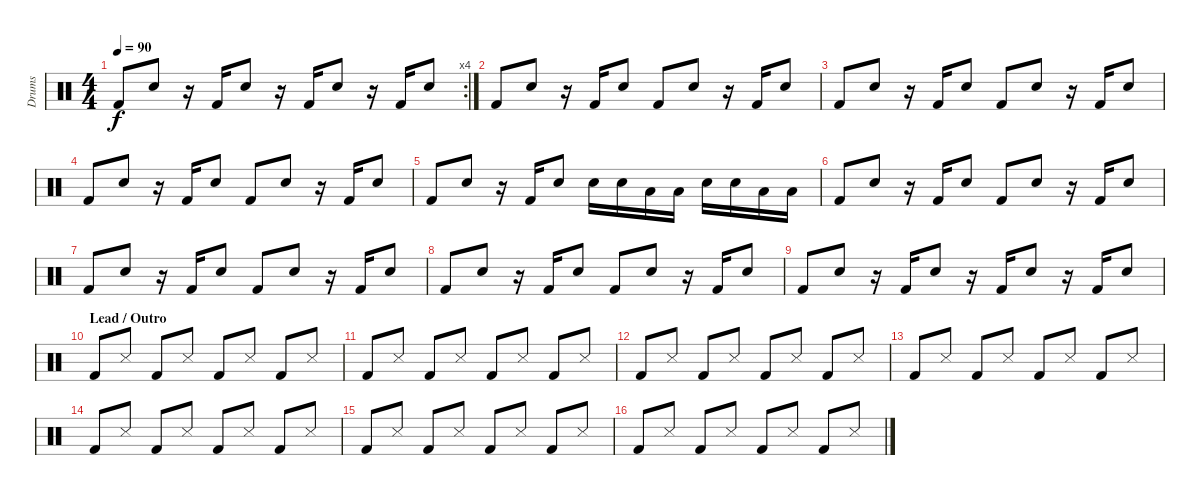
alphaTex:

\track ("Drums" "Drums") {instrument percussion}
\staff {score}
\articulation defaults
\rc 4
\ts (4 4)
\tempo 90
\clef neutral
\ks c "Kick (hit) 2".8{dy f} "Snare (hit) 2".8
r.16 "Kick (hit) 2".16 "Snare (hit) 2".8 r.16 "Kick (hit) 2".16 "Snare (hit) 2".8 r.16 "Kick (hit) 2".16 "Snare (hit) 2".8 |
"Kick (hit) 2".8 "Snare (hit) 2".8 r.16 "Kick (hit) 2".16 "Snare (hit) 2".8 "Kick (hit) 2".8 "Snare (hit) 2".8 r.16 "Kick (hit) 2".16 "Snare (hit) 2".8 |
"Kick (hit) 2".8 "Snare (hit) 2".8 r.16 "Kick (hit) 2".16 "Snare (hit) 2".8 "Kick (hit) 2".8 "Snare (hit) 2".8 r.16 "Kick (hit) 2".16 "Snare (hit) 2".8 |
"Kick (hit) 2".8 "Snare (hit) 2".8 r.16 "Kick (hit) 2".16 "Snare (hit) 2".8 "Kick (hit) 2".8 "Snare (hit) 2".8 r.16 "Kick (hit) 2".16 "Snare (hit) 2".8 |
"Kick (hit) 2".8 "Snare (hit) 2".8 r.16 "Kick (hit) 2".16 "Snare (hit) 2".8 "Snare (hit) 2".16 "Snare (hit) 2".16 "Low Floor Tom (hit)".16 "Low Floor Tom (hit)".16 "Snare (hit) 2".16 "Snare (hit) 2".16 "Low Floor Tom (hit)".16 "Low Floor Tom (hit)".16 |
"Kick (hit) 2".8 "Snare (hit) 2".8 r.16 "Kick (hit) 2".16 "Snare (hit) 2".8 "Kick (hit) 2".8 "Snare (hit) 2".8 r.16 "Kick (hit) 2".16 "Snare (hit) 2".8 |
"Kick (hit) 2".8 "Snare (hit) 2".8 r.16 "Kick (hit) 2".16 "Snare (hit) 2".8 "Kick (hit) 2".8 "Snare (hit) 2".8 r.16 "Kick (hit) 2".16 "Snare (hit) 2".8 |
"Kick (hit) 2".8 "Snare (hit) 2".8 r.16 "Kick (hit) 2".16 "Snare (hit) 2".8 "Kick (hit) 2".8 "Snare (hit) 2".8 r.16 "Kick (hit) 2".16 "Snare (hit) 2".8 |
"Kick (hit) 2".8 "Snare (hit) 2".8 r.16 "Kick (hit) 2".16 "Snare (hit) 2".8 r.16 "Kick (hit) 2".16 "Snare (hit) 2".8 r.16 "Kick (hit) 2".16 "Snare (hit) 2".8 |
\section ("" "Lead / Outro")
"Kick (hit) 2".8 "Snare (side stick) 3".8 "Kick (hit) 2".8 "Snare (side stick) 3".8 "Kick (hit) 2".8 "Snare (side stick) 3".8 "Kick (hit) 2".8 "Snare (side stick) 3".8 |
"Kick (hit) 2".8 "Snare (side stick) 3".8 "Kick (hit) 2".8 "Snare (side stick) 3".8 "Kick (hit) 2".8 "Snare (side stick) 3".8 "Kick (hit) 2".8 "Snare (side stick) 3".8 |
"Kick (hit) 2".8 "Snare (side stick) 3".8 "Kick (hit) 2".8 "Snare (side stick) 3".8 "Kick (hit) 2".8 "Snare (side stick) 3".8 "Kick (hit) 2".8 "Snare (side stick) 3".8 |
"Kick (hit) 2".8 "Snare (side stick) 3".8 "Kick (hit) 2".8 "Snare (side stick) 3".8 "Kick (hit) 2".8 "Snare (side stick) 3".8 "Kick (hit) 2".8 "Snare (side stick) 3".8 |
"Kick (hit) 2".8 "Snare (side stick) 3".8 "Kick (hit) 2".8 "Snare (side stick) 3".8 "Kick (hit) 2".8 "Snare (side stick) 3".8 "Kick (hit) 2".8 "Snare (side stick) 3".8 |
"Kick (hit) 2".8 "Snare (side stick) 3".8 "Kick (hit) 2".8 "Snare (side stick) 3".8 "Kick (hit) 2".8 "Snare (side stick) 3".8 "Kick (hit) 2".8 "Snare (side stick) 3".8 |
"Kick (hit) 2".8 "Snare (side stick) 3".8 "Kick (hit) 2".8 "Snare (side stick) 3".8 "Kick (hit) 2".8 "Snare (side stick) 3".8 "Kick (hit) 2".8 "Snare (side stick) 3".8
